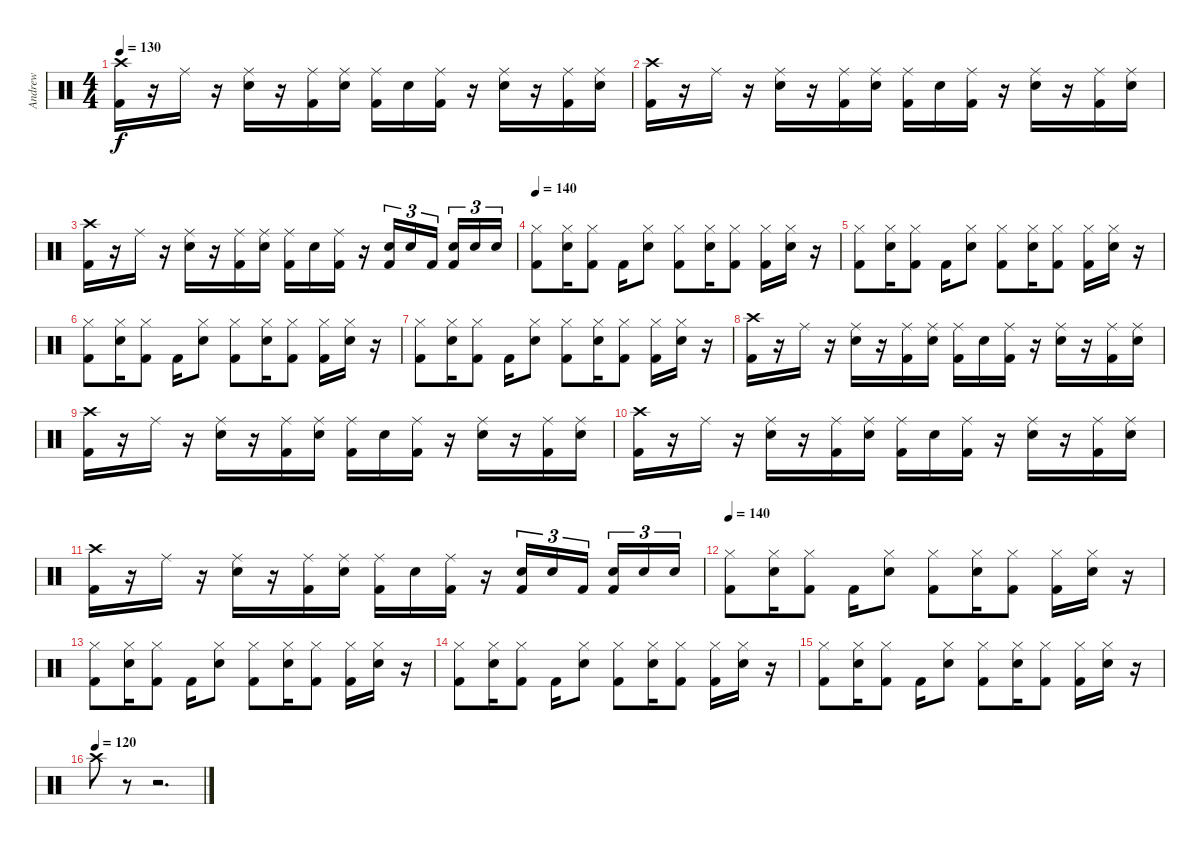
\track ("Andrew" "Andrew") {instrument percussion}
\staff {score}
\articulation defaults
\ts (4 4)
\tempo 130
\clef neutral
\ks c
("Kick (hit) 2" "Crash high (hit)").16{dy f} r.16 "Ride (middle)".16 r.16 ("Ride (middle)" "Snare (hit) 2").16 r.16 ("Ride (middle)" "Kick (hit) 2").16 ("Ride (middle)" "Snare (hit) 2").16 ("Ride (middle)" "Kick (hit) 2").16 "Snare (hit) 2".16 ("Ride (middle)" "Kick (hit) 2").16 r.16 ("Ride (middle)" "Snare (hit) 2").16 r.16 ("Ride (middle)" "Kick (hit) 2").16 ("Ride (middle)" "Snare (hit) 2").16 |
("Kick (hit) 2" "Crash high (hit)").16 r.16 "Ride (middle)".16 r.16 ("Ride (middle)" "Snare (hit) 2").16 r.16 ("Ride (middle)" "Kick (hit) 2").16 ("Ride (middle)" "Snare (hit) 2").16 ("Ride (middle)" "Kick (hit) 2").16 "Snare (hit) 2".16 ("Ride (middle)" "Kick (hit) 2").16 r.16 ("Ride (middle)" "Snare (hit) 2").16 r.16 ("Ride (middle)" "Kick (hit) 2").16 ("Ride (middle)" "Snare (hit) 2").16 |
("Kick (hit) 2" "Crash high (hit)").16 r.16 "Ride (middle)".16 r.16 ("Ride (middle)" "Snare (hit) 2").16 r.16 ("Ride (middle)" "Kick (hit) 2").16 ("Ride (middle)" "Snare (hit) 2").16 ("Ride (middle)" "Kick (hit) 2").16 "Snare (hit) 2".16 ("Ride (middle)" "Kick (hit) 2").16 r.16 ("Snare (hit) 2" "Kick (hit) 2").16{tu (3 2)} "Snare (hit) 2".16{tu (3 2)} "Kick (hit) 2".16{tu (3 2)} ("Snare (hit) 2" "Kick (hit) 2").16{tu (3 2)} "Snare (hit) 2".16{tu (3 2)} "Snare (hit) 2".16{tu (3 2)} |
\tempo 140
("Hi-Hat (closed)" "Kick (hit) 2").8 ("Hi-Hat (closed)" "Snare (hit) 2").16 ("Hi-Hat (closed)" "Kick (hit) 2").8 "Kick (hit) 2".16 ("Hi-Hat (closed)" "Snare (hit) 2").8 ("Hi-Hat (closed)" "Kick (hit) 2").8 ("Hi-Hat (closed)" "Snare (hit) 2").16 ("Hi-Hat (closed)" "Kick (hit) 2").8 ("Hi-Hat (closed)" "Kick (hit) 2").16 ("Hi-Hat (closed)" "Snare (hit) 2").16 r.16 |
("Hi-Hat (closed)" "Kick (hit) 2").8 ("Hi-Hat (closed)" "Snare (hit) 2").16 ("Hi-Hat (closed)" "Kick (hit) 2").8 "Kick (hit) 2".16 ("Hi-Hat (closed)" "Snare (hit) 2").8 ("Hi-Hat (closed)" "Kick (hit) 2").8 ("Hi-Hat (closed)" "Snare (hit) 2").16 ("Hi-Hat (closed)" "Kick (hit) 2").8 ("Hi-Hat (closed)" "Kick (hit) 2").16 ("Hi-Hat (closed)" "Snare (hit) 2").16 r.16 |
("Hi-Hat (closed)" "Kick (hit) 2").8 ("Hi-Hat (closed)" "Snare (hit) 2").16 ("Hi-Hat (closed)" "Kick (hit) 2").8 "Kick (hit) 2".16 ("Hi-Hat (closed)" "Snare (hit) 2").8 ("Hi-Hat (closed)" "Kick (hit) 2").8 ("Hi-Hat (closed)" "Snare (hit) 2").16 ("Hi-Hat (closed)" "Kick (hit) 2").8 ("Hi-Hat (closed)" "Kick (hit) 2").16 ("Hi-Hat (closed)" "Snare (hit) 2").16 r.16 |
("Hi-Hat (closed)" "Kick (hit) 2").8 ("Hi-Hat (closed)" "Snare (hit) 2").16 ("Hi-Hat (closed)" "Kick (hit) 2").8 "Kick (hit) 2".16 ("Hi-Hat (closed)" "Snare (hit) 2").8 ("Hi-Hat (closed)" "Kick (hit) 2").8 ("Hi-Hat (closed)" "Snare (hit) 2").16 ("Hi-Hat (closed)" "Kick (hit) 2").8 ("Hi-Hat (closed)" "Kick (hit) 2").16 ("Hi-Hat (closed)" "Snare (hit) 2").16 r.16 |
("Kick (hit) 2" "Crash high (hit)").16 r.16 "Ride (middle)".16 r.16 ("Ride (middle)" "Snare (hit) 2").16 r.16 ("Ride (middle)" "Kick (hit) 2").16 ("Ride (middle)" "Snare (hit) 2").16 ("Ride (middle)" "Kick (hit) 2").16 "Snare (hit) 2".16 ("Ride (middle)" "Kick (hit) 2").16 r.16 ("Ride (middle)" "Snare (hit) 2").16 r.16 ("Ride (middle)" "Kick (hit) 2").16 ("Ride (middle)" "Snare (hit) 2").16 |
("Kick (hit) 2" "Crash high (hit)").16 r.16 "Ride (middle)".16 r.16 ("Ride (middle)" "Snare (hit) 2").16 r.16 ("Ride (middle)" "Kick (hit) 2").16 ("Ride (middle)" "Snare (hit) 2").16 ("Ride (middle)" "Kick (hit) 2").16 "Snare (hit) 2".16 ("Ride (middle)" "Kick (hit) 2").16 r.16 ("Ride (middle)" "Snare (hit) 2").16 r.16 ("Ride (middle)" "Kick (hit) 2").16 ("Ride (middle)" "Snare (hit) 2").16 |
("Kick (hit) 2" "Crash high (hit)").16 r.16 "Ride (middle)".16 r.16 ("Ride (middle)" "Snare (hit) 2").16 r.16 ("Ride (middle)" "Kick (hit) 2").16 ("Ride (middle)" "Snare (hit) 2").16 ("Ride (middle)" "Kick (hit) 2").16 "Snare (hit) 2".16 ("Ride (middle)" "Kick (hit) 2").16 r.16 ("Ride (middle)" "Snare (hit) 2").16 r.16 ("Ride (middle)" "Kick (hit) 2").16 ("Ride (middle)" "Snare (hit) 2").16 |
("Kick (hit) 2" "Crash high (hit)").16 r.16 "Ride (middle)".16 r.16 ("Ride (middle)" "Snare (hit) 2").16 r.16 ("Ride (middle)" "Kick (hit) 2").16 ("Ride (middle)" "Snare (hit) 2").16 ("Ride (middle)" "Kick (hit) 2").16 "Snare (hit) 2".16 ("Ride (middle)" "Kick (hit) 2").16 r.16 ("Snare (hit) 2" "Kick (hit) 2").16{tu (3 2)} "Snare (hit) 2".16{tu (3 2)} "Kick (hit) 2".16{tu (3 2)} ("Snare (hit) 2" "Kick (hit) 2").16{tu (3 2)} "Snare (hit) 2".16{tu (3 2)} "Snare (hit) 2".16{tu (3 2)} |
\tempo 140
("Hi-Hat (closed)" "Kick (hit) 2").8 ("Hi-Hat (closed)" "Snare (hit) 2").16 ("Hi-Hat (closed)" "Kick (hit) 2").8 "Kick (hit) 2".16 ("Hi-Hat (closed)" "Snare (hit) 2").8 ("Hi-Hat (closed)" "Kick (hit) 2").8 ("Hi-Hat (closed)" "Snare (hit) 2").16 ("Hi-Hat (closed)" "Kick (hit) 2").8 ("Hi-Hat (closed)" "Kick (hit) 2").16 ("Hi-Hat (closed)" "Snare (hit) 2").16 r.16 |
("Hi-Hat (closed)" "Kick (hit) 2").8 ("Hi-Hat (closed)" "Snare (hit) 2").16 ("Hi-Hat (closed)" "Kick (hit) 2").8 "Kick (hit) 2".16 ("Hi-Hat (closed)" "Snare (hit) 2").8 ("Hi-Hat (closed)" "Kick (hit) 2").8 ("Hi-Hat (closed)" "Snare (hit) 2").16 ("Hi-Hat (closed)" "Kick (hit) 2").8 ("Hi-Hat (closed)" "Kick (hit) 2").16 ("Hi-Hat (closed)" "Snare (hit) 2").16 r.16 |
("Hi-Hat (closed)" "Kick (hit) 2").8 ("Hi-Hat (closed)" "Snare (hit) 2").16 ("Hi-Hat (closed)" "Kick (hit) 2").8 "Kick (hit) 2".16 ("Hi-Hat (closed)" "Snare (hit) 2").8 ("Hi-Hat (closed)" "Kick (hit) 2").8 ("Hi-Hat (closed)" "Snare (hit) 2").16 ("Hi-Hat (closed)" "Kick (hit) 2").8 ("Hi-Hat (closed)" "Kick (hit) 2").16 ("Hi-Hat (closed)" "Snare (hit) 2").16 r.16 |
("Hi-Hat (closed)" "Kick (hit) 2").8 ("Hi-Hat (closed)" "Snare (hit) 2").16 ("Hi-Hat (closed)" "Kick (hit) 2").8 "Kick (hit) 2".16 ("Hi-Hat (closed)" "Snare (hit) 2").8 ("Hi-Hat (closed)" "Kick (hit) 2").8 ("Hi-Hat (closed)" "Snare (hit) 2").16 ("Hi-Hat (closed)" "Kick (hit) 2").8 ("Hi-Hat (closed)" "Kick (hit) 2").16 ("Hi-Hat (closed)" "Snare (hit) 2").16 r.16 |
\tempo 130
\tempo (120)
"Crash high (hit)".8 r.8 r.2{d}
